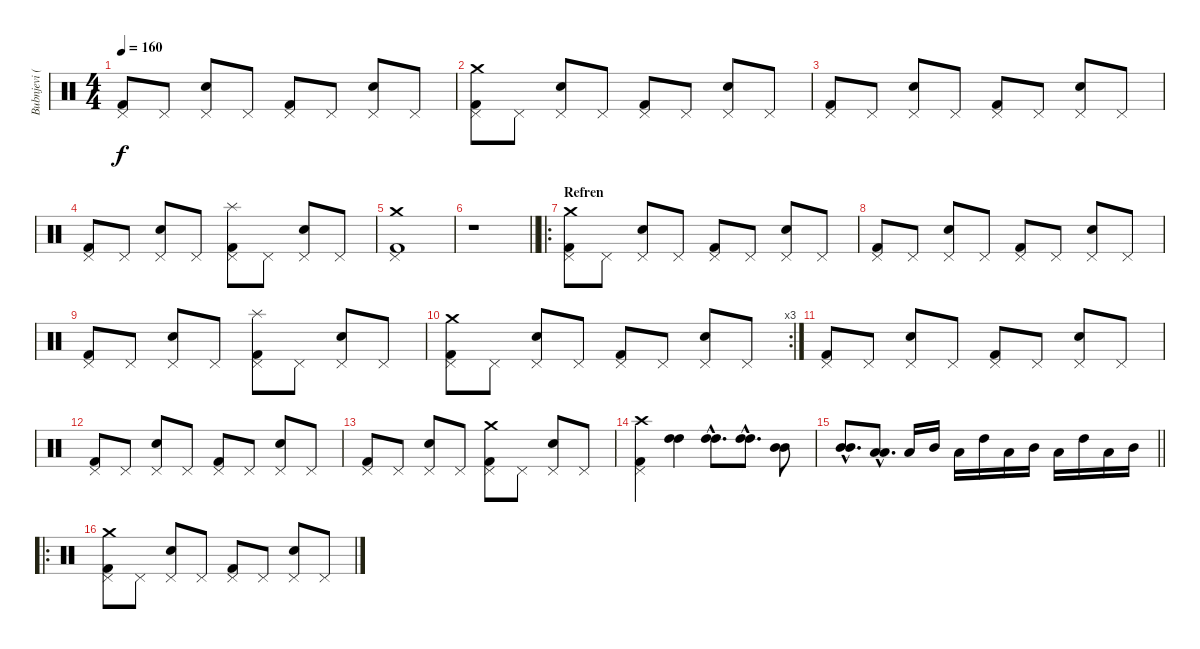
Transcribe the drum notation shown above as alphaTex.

\track ("Bubnjevi (Nasko Budimic)" "Bubnjevi (") {instrument percussion}
\staff {score}
\articulation defaults
\ts (4 4)
\tempo 160
\clef neutral
\ks c
("Pedal Hi-Hat (hit)" "Kick (hit) 2").8{dy f} "Pedal Hi-Hat (hit)".8 ("Pedal Hi-Hat (hit)" "Snare (hit) 2").8 "Pedal Hi-Hat (hit)".8 ("Pedal Hi-Hat (hit)" "Kick (hit) 2").8 "Pedal Hi-Hat (hit)".8 ("Pedal Hi-Hat (hit)" "Snare (hit) 2").8 "Pedal Hi-Hat (hit)".8 |
("Crash medium (hit)" "Pedal Hi-Hat (hit)" "Kick (hit) 2").8 "Pedal Hi-Hat (hit)".8 ("Pedal Hi-Hat (hit)" "Snare (hit) 2").8 "Pedal Hi-Hat (hit)".8 ("Pedal Hi-Hat (hit)" "Kick (hit) 2").8 "Pedal Hi-Hat (hit)".8 ("Pedal Hi-Hat (hit)" "Snare (hit) 2").8 "Pedal Hi-Hat (hit)".8 |
("Pedal Hi-Hat (hit)" "Kick (hit) 2").8 "Pedal Hi-Hat (hit)".8 ("Pedal Hi-Hat (hit)" "Snare (hit) 2").8 "Pedal Hi-Hat (hit)".8 ("Pedal Hi-Hat (hit)" "Kick (hit) 2").8 "Pedal Hi-Hat (hit)".8 ("Pedal Hi-Hat (hit)" "Snare (hit) 2").8 "Pedal Hi-Hat (hit)".8 |
("Pedal Hi-Hat (hit)" "Kick (hit) 2").8 "Pedal Hi-Hat (hit)".8 ("Pedal Hi-Hat (hit)" "Snare (hit) 2").8 "Pedal Hi-Hat (hit)".8 ("Splash (hit)" "Pedal Hi-Hat (hit)" "Kick (hit) 2").8 "Pedal Hi-Hat (hit)".8 ("Pedal Hi-Hat (hit)" "Snare (hit) 2").8 "Pedal Hi-Hat (hit)".8 |
("Crash medium (hit)" "Pedal Hi-Hat (hit)" "Kick (hit) 2").1 |
\barLineRight lightlight
r.1 |
\ro
\section ("" "Refren")
("Crash medium (hit)" "Pedal Hi-Hat (hit)" "Kick (hit) 2").8 "Pedal Hi-Hat (hit)".8 ("Pedal Hi-Hat (hit)" "Snare (hit) 2").8 "Pedal Hi-Hat (hit)".8 ("Pedal Hi-Hat (hit)" "Kick (hit) 2").8 "Pedal Hi-Hat (hit)".8 ("Pedal Hi-Hat (hit)" "Snare (hit) 2").8 "Pedal Hi-Hat (hit)".8 |
("Pedal Hi-Hat (hit)" "Kick (hit) 2").8 "Pedal Hi-Hat (hit)".8 ("Pedal Hi-Hat (hit)" "Snare (hit) 2").8 "Pedal Hi-Hat (hit)".8 ("Pedal Hi-Hat (hit)" "Kick (hit) 2").8 "Pedal Hi-Hat (hit)".8 ("Pedal Hi-Hat (hit)" "Snare (hit) 2").8 "Pedal Hi-Hat (hit)".8 |
("Pedal Hi-Hat (hit)" "Kick (hit) 2").8 "Pedal Hi-Hat (hit)".8 ("Pedal Hi-Hat (hit)" "Snare (hit) 2").8 "Pedal Hi-Hat (hit)".8 ("Splash (hit)" "Pedal Hi-Hat (hit)" "Kick (hit) 2").8 "Pedal Hi-Hat (hit)".8 ("Pedal Hi-Hat (hit)" "Snare (hit) 2").8 "Pedal Hi-Hat (hit)".8 |
\rc 3
("Crash medium (hit)" "Pedal Hi-Hat (hit)" "Kick (hit) 2").8 "Pedal Hi-Hat (hit)".8 ("Pedal Hi-Hat (hit)" "Snare (hit) 2").8 "Pedal Hi-Hat (hit)".8 ("Pedal Hi-Hat (hit)" "Kick (hit) 2").8 "Pedal Hi-Hat (hit)".8 ("Pedal Hi-Hat (hit)" "Snare (hit) 2").8 "Pedal Hi-Hat (hit)".8 |
("Pedal Hi-Hat (hit)" "Kick (hit) 2").8 "Pedal Hi-Hat (hit)".8 ("Pedal Hi-Hat (hit)" "Snare (hit) 2").8 "Pedal Hi-Hat (hit)".8 ("Pedal Hi-Hat (hit)" "Kick (hit) 2").8 "Pedal Hi-Hat (hit)".8 ("Pedal Hi-Hat (hit)" "Snare (hit) 2").8 "Pedal Hi-Hat (hit)".8 |
("Pedal Hi-Hat (hit)" "Kick (hit) 2").8 "Pedal Hi-Hat (hit)".8 ("Pedal Hi-Hat (hit)" "Snare (hit) 2").8 "Pedal Hi-Hat (hit)".8 ("Pedal Hi-Hat (hit)" "Kick (hit) 2").8 "Pedal Hi-Hat (hit)".8 ("Pedal Hi-Hat (hit)" "Snare (hit) 2").8 "Pedal Hi-Hat (hit)".8 |
("Pedal Hi-Hat (hit)" "Kick (hit) 2").8 "Pedal Hi-Hat (hit)".8 ("Pedal Hi-Hat (hit)" "Snare (hit) 2").8 "Pedal Hi-Hat (hit)".8 ("Crash medium (hit)" "Pedal Hi-Hat (hit)" "Kick (hit) 2").8 "Pedal Hi-Hat (hit)".8 ("Pedal Hi-Hat (hit)" "Snare (hit) 2").8 "Pedal Hi-Hat (hit)".8 |
("Crash high (hit)" "Pedal Hi-Hat (hit)" "Kick (hit) 2").4 ("High Tom (hit)" "High Tom (hit)").4 ("High Tom (hit)"{hac} "High Tom (hit)"{hac}).8{d} ("High Tom (hit)"{hac} "High Tom (hit)"{hac}).8{d} ("Mid Tom (hit)" "Mid Tom (hit)").8 |
\barLineRight lightlight
("Mid Tom (hit)"{hac} "Mid Tom (hit)"{hac}).8{d} ("Low Tom (hit)"{hac} "Low Tom (hit)"{hac}).8{d} "Low Tom (hit)".16 "Mid Tom (hit)".16 "Low Tom (hit)".16 "High Tom (hit)".16 "Low Tom (hit)".16 "Mid Tom (hit)".16 "Low Tom (hit)".16 "High Tom (hit)".16 "Low Tom (hit)".16 "Mid Tom (hit)".16 |
\ro
("Crash medium (hit)" "Pedal Hi-Hat (hit)" "Kick (hit) 2").8 "Pedal Hi-Hat (hit)".8 ("Pedal Hi-Hat (hit)" "Snare (hit) 2").8 "Pedal Hi-Hat (hit)".8 ("Pedal Hi-Hat (hit)" "Kick (hit) 2").8 "Pedal Hi-Hat (hit)".8 ("Pedal Hi-Hat (hit)" "Snare (hit) 2").8 "Pedal Hi-Hat (hit)".8
